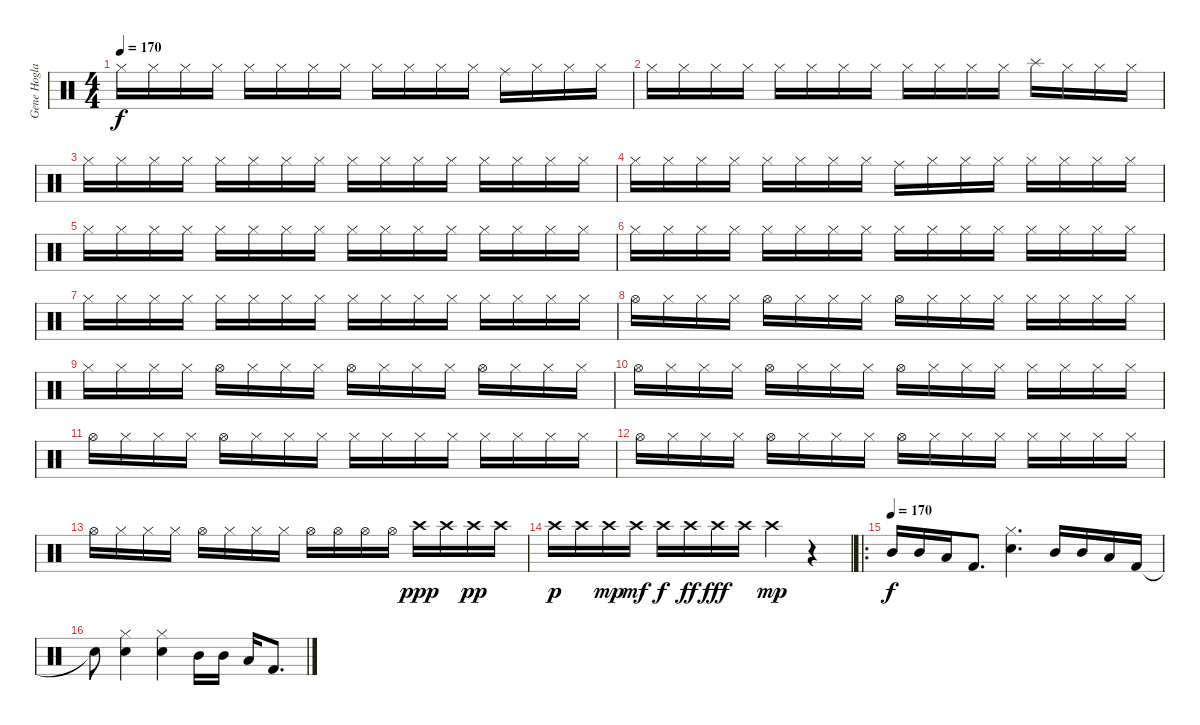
\track ("Gene Hoglan" "Gene Hogla") {instrument percussion}
\staff {score}
\articulation defaults
\ts (4 4)
\tempo 170
\tempo 175
\tempo 170
\clef neutral
\ks c "Hi-Hat (closed)".16{dy f} "Hi-Hat (closed)".16 "Hi-Hat (closed)".16 "Hi-Hat (closed)".16 "Hi-Hat (closed)".16 "Hi-Hat (closed)".16 "Hi-Hat (closed)".16 "Hi-Hat (closed)".16 "Hi-Hat (closed)".16 "Hi-Hat (closed)".16 "Hi-Hat (closed)".16 "Hi-Hat (closed)".16 "Ride (middle)".16 "Hi-Hat (closed)".16 "Hi-Hat (closed)".16 "Hi-Hat (closed)".16
|
"Hi-Hat (closed)".16 "Hi-Hat (closed)".16 "Hi-Hat (closed)".16 "Hi-Hat (closed)".16 "Hi-Hat (closed)".16 "Hi-Hat (closed)".16 "Hi-Hat (closed)".16 "Hi-Hat (closed)".16 "Hi-Hat (closed)".16 "Hi-Hat (closed)".16 "Hi-Hat (closed)".16 "Hi-Hat (closed)".16 "Splash (hit)".16 "Hi-Hat (closed)".16 "Hi-Hat (closed)".16 "Hi-Hat (closed)".16 |
"Hi-Hat (closed)".16 "Hi-Hat (closed)".16 "Hi-Hat (closed)".16 "Hi-Hat (closed)".16 "Hi-Hat (closed)".16 "Hi-Hat (closed)".16 "Hi-Hat (closed)".16 "Hi-Hat (closed)".16 "Hi-Hat (closed)".16 "Hi-Hat (closed)".16 "Hi-Hat (closed)".16 "Hi-Hat (closed)".16 "Hi-Hat (closed)".16 "Hi-Hat (closed)".16 "Hi-Hat (closed)".16 "Hi-Hat (closed)".16 |
"Hi-Hat (closed)".16 "Hi-Hat (closed)".16 "Hi-Hat (closed)".16 "Hi-Hat (closed)".16 "Hi-Hat (closed)".16 "Hi-Hat (closed)".16 "Hi-Hat (closed)".16 "Hi-Hat (closed)".16 "Ride (middle)".16 "Hi-Hat (closed)".16 "Hi-Hat (closed)".16 "Hi-Hat (closed)".16 "Hi-Hat (closed)".16 "Hi-Hat (closed)".16 "Hi-Hat (closed)".16 "Hi-Hat (closed)".16 |
"Hi-Hat (closed)".16 "Hi-Hat (closed)".16 "Hi-Hat (closed)".16 "Hi-Hat (closed)".16 "Hi-Hat (closed)".16 "Hi-Hat (closed)".16 "Hi-Hat (closed)".16 "Hi-Hat (closed)".16 "Hi-Hat (closed)".16 "Hi-Hat (closed)".16 "Hi-Hat (closed)".16 "Hi-Hat (closed)".16 "Hi-Hat (closed)".16 "Hi-Hat (closed)".16 "Hi-Hat (closed)".16 "Hi-Hat (closed)".16 |
"Hi-Hat (closed)".16 "Hi-Hat (closed)".16 "Hi-Hat (closed)".16 "Hi-Hat (closed)".16 "Hi-Hat (closed)".16 "Hi-Hat (closed)".16 "Hi-Hat (closed)".16 "Hi-Hat (closed)".16 "Hi-Hat (closed)".16 "Hi-Hat (closed)".16 "Hi-Hat (closed)".16 "Hi-Hat (closed)".16 "Hi-Hat (closed)".16 "Hi-Hat (closed)".16 "Hi-Hat (closed)".16 "Hi-Hat (closed)".16 |
"Hi-Hat (closed)".16 "Hi-Hat (closed)".16 "Hi-Hat (closed)".16 "Hi-Hat (closed)".16 "Hi-Hat (closed)".16 "Hi-Hat (closed)".16 "Hi-Hat (closed)".16 "Hi-Hat (closed)".16 "Hi-Hat (closed)".16 "Hi-Hat (closed)".16 "Hi-Hat (closed)".16 "Hi-Hat (closed)".16 "Hi-Hat (closed)".16 "Hi-Hat (closed)".16 "Hi-Hat (closed)".16 "Hi-Hat (closed)".16 |
"Hi-Hat (open)".16 "Hi-Hat (closed)".16 "Hi-Hat (closed)".16 "Hi-Hat (closed)".16 "Hi-Hat (open)".16 "Hi-Hat (closed)".16 "Hi-Hat (closed)".16 "Hi-Hat (closed)".16 "Hi-Hat (open)".16 "Hi-Hat (closed)".16 "Hi-Hat (closed)".16 "Hi-Hat (closed)".16 "Hi-Hat (closed)".16 "Hi-Hat (closed)".16 "Hi-Hat (closed)".16 "Hi-Hat (closed)".16 |
"Hi-Hat (closed)".16 "Hi-Hat (closed)".16 "Hi-Hat (closed)".16 "Hi-Hat (closed)".16 "Hi-Hat (open)".16 "Hi-Hat (closed)".16 "Hi-Hat (closed)".16 "Hi-Hat (closed)".16 "Hi-Hat (open)".16 "Hi-Hat (closed)".16 "Hi-Hat (closed)".16 "Hi-Hat (closed)".16 "Hi-Hat (open)".16 "Hi-Hat (closed)".16 "Hi-Hat (closed)".16 "Hi-Hat (closed)".16 |
"Hi-Hat (open)".16 "Hi-Hat (closed)".16 "Hi-Hat (closed)".16 "Hi-Hat (closed)".16 "Hi-Hat (open)".16 "Hi-Hat (closed)".16 "Hi-Hat (closed)".16 "Hi-Hat (closed)".16 "Hi-Hat (open)".16 "Hi-Hat (closed)".16 "Hi-Hat (closed)".16 "Hi-Hat (closed)".16 "Hi-Hat (closed)".16 "Hi-Hat (closed)".16 "Hi-Hat (closed)".16 "Hi-Hat (closed)".16 |
"Hi-Hat (open)".16 "Hi-Hat (closed)".16 "Hi-Hat (closed)".16 "Hi-Hat (closed)".16 "Hi-Hat (open)".16 "Hi-Hat (closed)".16 "Hi-Hat (closed)".16 "Hi-Hat (closed)".16 "Hi-Hat (closed)".16 "Hi-Hat (closed)".16 "Hi-Hat (closed)".16 "Hi-Hat (closed)".16 "Hi-Hat (closed)".16 "Hi-Hat (closed)".16 "Hi-Hat (closed)".16 "Hi-Hat (closed)".16 |
"Hi-Hat (open)".16 "Hi-Hat (closed)".16 "Hi-Hat (closed)".16 "Hi-Hat (closed)".16 "Hi-Hat (open)".16 "Hi-Hat (closed)".16 "Hi-Hat (closed)".16 "Hi-Hat (closed)".16 "Hi-Hat (open)".16 "Hi-Hat (closed)".16 "Hi-Hat (closed)".16 "Hi-Hat (closed)".16 "Hi-Hat (closed)".16 "Hi-Hat (closed)".16 "Hi-Hat (closed)".16 "Hi-Hat (closed)".16 |
"Hi-Hat (open)".16 "Hi-Hat (closed)".16 "Hi-Hat (closed)".16 "Hi-Hat (closed)".16 "Hi-Hat (open)".16 "Hi-Hat (closed)".16 "Hi-Hat (closed)".16 "Hi-Hat (closed)".16 "Hi-Hat (open)".16 "Hi-Hat (open)".16 "Hi-Hat (open)".16 "Hi-Hat (open)".16 "Crash high (hit)".16{dy ppp} "Crash high (hit)".16 "Crash high (hit)".16{dy pp} "Crash high (hit)".16 |
"Crash high (hit)".16{dy p} "Crash high (hit)".16 "Crash high (hit)".16{dy mp} "Crash high (hit)".16{dy mf} "Crash high (hit)".16{dy f} "Crash high (hit)".16{dy ff} "Crash high (hit)".16{dy fff} "Crash high (hit)".16 "Crash high (hit)".4{dy mp} r.4 |
\ro
\tempo (170)
"Mid Tom (hit)".16{dy f} "Mid Tom (hit)".16 "Low Tom (hit)".16 "Kick (hit) 2".8{d} ("Hi-Hat (closed)" "Snare (hit) 2").4{d} "Mid Tom (hit)".16 "Mid Tom (hit)".16 "Low Tom (hit)".16 "Kick (hit) 2".16 |
"Snare (hit) 2"{t}.8 ("Hi-Hat (closed)" "Snare (hit) 2").4 ("Hi-Hat (closed)" "Snare (hit) 2").4 "Mid Tom (hit)".16 "Mid Tom (hit)".16 "Low Tom (hit)".16 "Kick (hit) 2".8{d}
